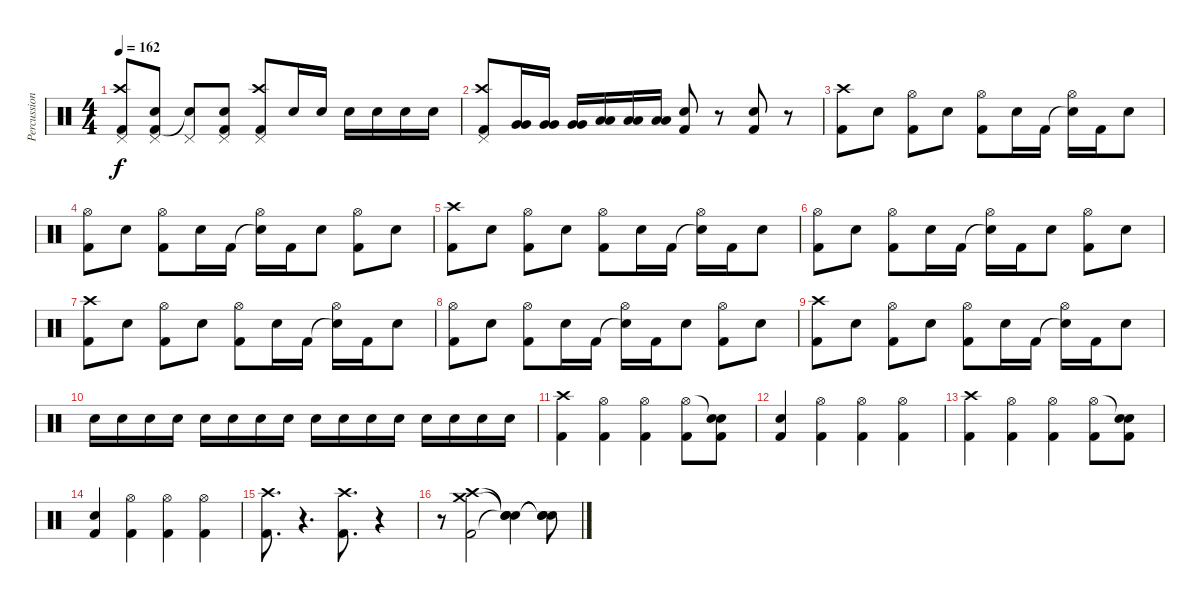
\track ("Percussions" "Percussion") {instrument percussion}
\staff {score}
\articulation defaults
\ts (4 4)
\tempo 162
\clef neutral
\ks c
("Kick (hit) 2" "Crash high (hit)" "Pedal Hi-Hat (hit)").8{dy f} ("Kick (hit) 2" "Electric Snare (hit)" "Pedal Hi-Hat (hit)").8 ("Snare (hit)"{t} "Pedal Hi-Hat (hit)").8 ("Kick (hit) 2" "Electric Snare (hit)" "Pedal Hi-Hat (hit)").8 ("Kick (hit) 2" "Crash high (hit)" "Pedal Hi-Hat (hit)").8 "Electric Snare (hit)".16 "Electric Snare (hit)".16 "Electric Snare (hit)".16 "Electric Snare (hit)".16 "Electric Snare (hit)".16 "Electric Snare (hit)".16 |
("Kick (hit) 2" "Crash high (hit)" "Pedal Hi-Hat (hit)").8 ("Very Low Tom (hit)" "Very Low Tom (hit)").16 ("Very Low Tom (hit)" "Very Low Tom (hit)").16 ("Very Low Tom (hit)" "Very Low Tom (hit)").16 ("Low Floor Tom (hit)" "Low Floor Tom (hit)").16 ("Low Floor Tom (hit)" "Low Floor Tom (hit)").16 ("Low Floor Tom (hit)" "Low Floor Tom (hit)").16 ("Kick (hit) 2" "Electric Snare (hit)").8 r.8 ("Kick (hit) 2" "Electric Snare (hit)").8 r.8 |
("Kick (hit) 2" "Crash high (hit)").8 "Electric Snare (hit)".8 ("Kick (hit) 2" "Hi-Hat (open)").8 "Electric Snare (hit)".8 ("Kick (hit) 2" "Hi-Hat (open)").8 "Electric Snare (hit)".16 "Kick (hit) 2".16 ("Snare (hit)"{t} "Hi-Hat (open)").16 "Kick (hit) 2".16 "Electric Snare (hit)".8 |
("Kick (hit) 2" "Hi-Hat (open)").8 "Electric Snare (hit)".8 ("Kick (hit) 2" "Hi-Hat (open)").8 "Electric Snare (hit)".16 "Kick (hit) 2".16 ("Snare (hit)"{t} "Hi-Hat (open)").16 "Kick (hit) 2".16 "Electric Snare (hit)".8 ("Kick (hit) 2" "Hi-Hat (open)").8 "Electric Snare (hit)".8 |
("Kick (hit) 2" "Crash high (hit)").8 "Electric Snare (hit)".8 ("Kick (hit) 2" "Hi-Hat (open)").8 "Electric Snare (hit)".8 ("Kick (hit) 2" "Hi-Hat (open)").8 "Electric Snare (hit)".16 "Kick (hit) 2".16 ("Snare (hit)"{t} "Hi-Hat (open)").16 "Kick (hit) 2".16 "Electric Snare (hit)".8 |
("Kick (hit) 2" "Hi-Hat (open)").8 "Electric Snare (hit)".8 ("Kick (hit) 2" "Hi-Hat (open)").8 "Electric Snare (hit)".16 "Kick (hit) 2".16 ("Snare (hit)"{t} "Hi-Hat (open)").16 "Kick (hit) 2".16 "Electric Snare (hit)".8 ("Kick (hit) 2" "Hi-Hat (open)").8 "Electric Snare (hit)".8 |
("Kick (hit) 2" "Crash high (hit)").8 "Electric Snare (hit)".8 ("Kick (hit) 2" "Hi-Hat (open)").8 "Electric Snare (hit)".8 ("Kick (hit) 2" "Hi-Hat (open)").8 "Electric Snare (hit)".16 "Kick (hit) 2".16 ("Snare (hit)"{t} "Hi-Hat (open)").16 "Kick (hit) 2".16 "Electric Snare (hit)".8 |
("Kick (hit) 2" "Hi-Hat (open)").8 "Electric Snare (hit)".8 ("Kick (hit) 2" "Hi-Hat (open)").8 "Electric Snare (hit)".16 "Kick (hit) 2".16 ("Snare (hit)"{t} "Hi-Hat (open)").16 "Kick (hit) 2".16 "Electric Snare (hit)".8 ("Kick (hit) 2" "Hi-Hat (open)").8 "Electric Snare (hit)".8 |
("Kick (hit) 2" "Crash high (hit)").8 "Electric Snare (hit)".8 ("Kick (hit) 2" "Hi-Hat (open)").8 "Electric Snare (hit)".8 ("Kick (hit) 2" "Hi-Hat (open)").8 "Electric Snare (hit)".16 "Kick (hit) 2".16 ("Snare (hit)"{t} "Hi-Hat (open)").16 "Kick (hit) 2".16 "Electric Snare (hit)".8 |
"Electric Snare (hit)".16 "Electric Snare (hit)".16 "Electric Snare (hit)".16 "Electric Snare (hit)".16 "Electric Snare (hit)".16 "Electric Snare (hit)".16 "Electric Snare (hit)".16 "Electric Snare (hit)".16 "Electric Snare (hit)".16 "Electric Snare (hit)".16 "Electric Snare (hit)".16 "Electric Snare (hit)".16 "Electric Snare (hit)".16 "Electric Snare (hit)".16 "Electric Snare (hit)".16 "Electric Snare (hit)".16 |
("Kick (hit) 2" "Crash high (hit)").4 ("Kick (hit) 2" "Hi-Hat (open)").4 ("Kick (hit) 2" "Hi-Hat (open)").4 ("Kick (hit) 2" "Hi-Hat (open)").8 ("Electric Snare (hit)" "Electric Snare (hit)"{t} "Kick (hit) 2").8 |
("Electric Snare (hit)" "Kick (hit) 2").4 ("Kick (hit) 2" "Hi-Hat (open)").4 ("Kick (hit) 2" "Hi-Hat (open)").4 ("Kick (hit) 2" "Hi-Hat (open)").4 |
("Kick (hit) 2" "Crash high (hit)").4 ("Kick (hit) 2" "Hi-Hat (open)").4 ("Kick (hit) 2" "Hi-Hat (open)").4 ("Kick (hit) 2" "Hi-Hat (open)").8 ("Electric Snare (hit)" "Electric Snare (hit)"{t} "Kick (hit) 2").8 |
("Electric Snare (hit)" "Kick (hit) 2").4 ("Kick (hit) 2" "Hi-Hat (open)").4 ("Kick (hit) 2" "Hi-Hat (open)").4 ("Kick (hit) 2" "Hi-Hat (open)").4 |
("Kick (hit) 2" "Crash high (hit)").8{d} r.4{d} ("Kick (hit) 2" "Crash high (hit)").8{d} r.4 |
r.8 ("Crash high (hit)" "Crash medium (hit)" "Kick (hit) 2").2 ("Snare (hit)"{t} "Snare (hit)"{t} "Snare (hit)"{t}).4 ("Snare (hit)"{t} "Snare (hit)"{t} "Snare (hit)"{t}).8
